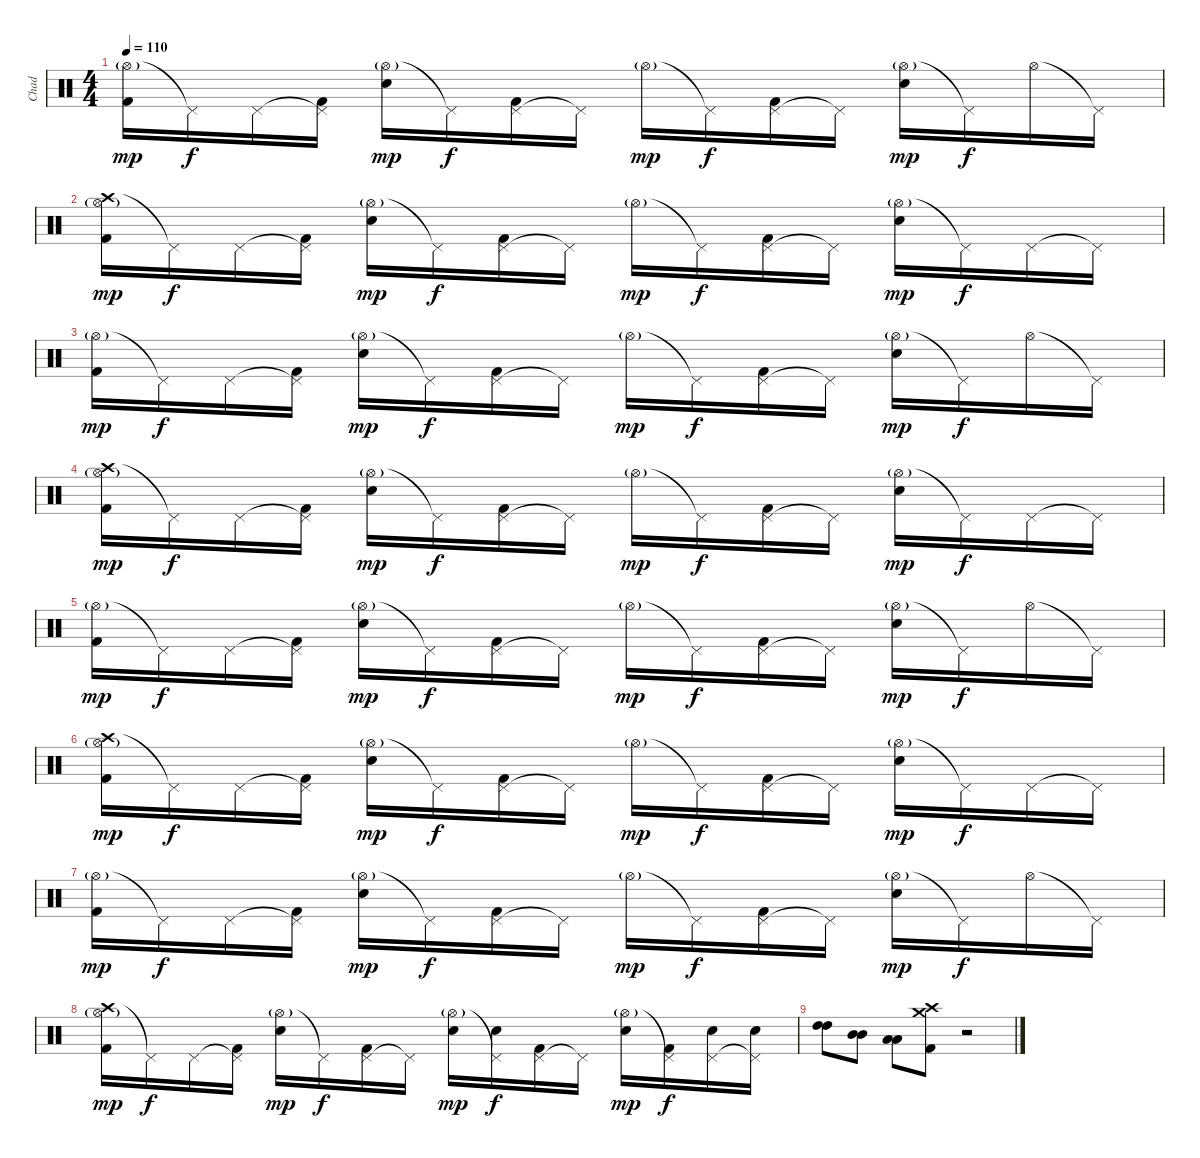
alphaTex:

\track ("Chad" "Chad") {instrument percussion}
\staff {score}
\articulation defaults
\ts (4 4)
\tempo 110
\clef neutral
\ks c
("Hi-Hat (open)"{g} "Kick (hit) 2").16{dy mp} "Pedal Hi-Hat (hit)"{t}.16{dy f} "Pedal Hi-Hat (hit)".16 ("Pedal Hi-Hat (hit)"{t} "Kick (hit) 2").16 ("Hi-Hat (open)"{g} "Electric Snare (hit)").16{dy mp} "Pedal Hi-Hat (hit)"{t}.16{dy f} ("Pedal Hi-Hat (hit)" "Kick (hit) 2").16 "Pedal Hi-Hat (hit)"{t}.16 "Hi-Hat (open)"{g}.16{dy mp} "Pedal Hi-Hat (hit)"{t}.16{dy f} ("Pedal Hi-Hat (hit)" "Kick (hit) 2").16 "Pedal Hi-Hat (hit)"{t}.16 ("Hi-Hat (open)"{g} "Electric Snare (hit)").16{dy mp} "Pedal Hi-Hat (hit)"{t}.16{dy f} "Hi-Hat (open)".16 "Pedal Hi-Hat (hit)"{t}.16 |
("Crash high (hit)" "Hi-Hat (open)"{g} "Kick (hit) 2").16{dy mp} "Pedal Hi-Hat (hit)"{t}.16{dy f} "Pedal Hi-Hat (hit)".16 ("Pedal Hi-Hat (hit)"{t} "Kick (hit) 2").16 ("Hi-Hat (open)"{g} "Electric Snare (hit)").16{dy mp} "Pedal Hi-Hat (hit)"{t}.16{dy f} ("Pedal Hi-Hat (hit)" "Kick (hit) 2").16 "Pedal Hi-Hat (hit)"{t}.16 "Hi-Hat (open)"{g}.16{dy mp} "Pedal Hi-Hat (hit)"{t}.16{dy f} ("Pedal Hi-Hat (hit)" "Kick (hit) 2").16 "Pedal Hi-Hat (hit)"{t}.16 ("Hi-Hat (open)"{g} "Electric Snare (hit)").16{dy mp} "Pedal Hi-Hat (hit)"{t}.16{dy f} "Pedal Hi-Hat (hit)".16 "Pedal Hi-Hat (hit)"{t}.16 |
("Hi-Hat (open)"{g} "Kick (hit) 2").16{dy mp} "Pedal Hi-Hat (hit)"{t}.16{dy f} "Pedal Hi-Hat (hit)".16 ("Pedal Hi-Hat (hit)"{t} "Kick (hit) 2").16 ("Hi-Hat (open)"{g} "Electric Snare (hit)").16{dy mp} "Pedal Hi-Hat (hit)"{t}.16{dy f} ("Pedal Hi-Hat (hit)" "Kick (hit) 2").16 "Pedal Hi-Hat (hit)"{t}.16 "Hi-Hat (open)"{g}.16{dy mp} "Pedal Hi-Hat (hit)"{t}.16{dy f} ("Pedal Hi-Hat (hit)" "Kick (hit) 2").16 "Pedal Hi-Hat (hit)"{t}.16 ("Hi-Hat (open)"{g} "Electric Snare (hit)").16{dy mp} "Pedal Hi-Hat (hit)"{t}.16{dy f} "Hi-Hat (open)".16 "Pedal Hi-Hat (hit)"{t}.16 |
("Crash high (hit)" "Hi-Hat (open)"{g} "Kick (hit) 2").16{dy mp} "Pedal Hi-Hat (hit)"{t}.16{dy f} "Pedal Hi-Hat (hit)".16 ("Pedal Hi-Hat (hit)"{t} "Kick (hit) 2").16 ("Hi-Hat (open)"{g} "Electric Snare (hit)").16{dy mp} "Pedal Hi-Hat (hit)"{t}.16{dy f} ("Pedal Hi-Hat (hit)" "Kick (hit) 2").16 "Pedal Hi-Hat (hit)"{t}.16 "Hi-Hat (open)"{g}.16{dy mp} "Pedal Hi-Hat (hit)"{t}.16{dy f} ("Pedal Hi-Hat (hit)" "Kick (hit) 2").16 "Pedal Hi-Hat (hit)"{t}.16 ("Hi-Hat (open)"{g} "Electric Snare (hit)").16{dy mp} "Pedal Hi-Hat (hit)"{t}.16{dy f} "Pedal Hi-Hat (hit)".16 "Pedal Hi-Hat (hit)"{t}.16 |
("Hi-Hat (open)"{g} "Kick (hit) 2").16{dy mp} "Pedal Hi-Hat (hit)"{t}.16{dy f} "Pedal Hi-Hat (hit)".16 ("Pedal Hi-Hat (hit)"{t} "Kick (hit) 2").16 ("Hi-Hat (open)"{g} "Electric Snare (hit)").16{dy mp} "Pedal Hi-Hat (hit)"{t}.16{dy f} ("Pedal Hi-Hat (hit)" "Kick (hit) 2").16 "Pedal Hi-Hat (hit)"{t}.16 "Hi-Hat (open)"{g}.16{dy mp} "Pedal Hi-Hat (hit)"{t}.16{dy f} ("Pedal Hi-Hat (hit)" "Kick (hit) 2").16 "Pedal Hi-Hat (hit)"{t}.16 ("Hi-Hat (open)"{g} "Electric Snare (hit)").16{dy mp} "Pedal Hi-Hat (hit)"{t}.16{dy f} "Hi-Hat (open)".16 "Pedal Hi-Hat (hit)"{t}.16 |
("Crash high (hit)" "Hi-Hat (open)"{g} "Kick (hit) 2").16{dy mp} "Pedal Hi-Hat (hit)"{t}.16{dy f} "Pedal Hi-Hat (hit)".16 ("Pedal Hi-Hat (hit)"{t} "Kick (hit) 2").16 ("Hi-Hat (open)"{g} "Electric Snare (hit)").16{dy mp} "Pedal Hi-Hat (hit)"{t}.16{dy f} ("Pedal Hi-Hat (hit)" "Kick (hit) 2").16 "Pedal Hi-Hat (hit)"{t}.16 "Hi-Hat (open)"{g}.16{dy mp} "Pedal Hi-Hat (hit)"{t}.16{dy f} ("Pedal Hi-Hat (hit)" "Kick (hit) 2").16 "Pedal Hi-Hat (hit)"{t}.16 ("Hi-Hat (open)"{g} "Electric Snare (hit)").16{dy mp} "Pedal Hi-Hat (hit)"{t}.16{dy f} "Pedal Hi-Hat (hit)".16 "Pedal Hi-Hat (hit)"{t}.16 |
("Hi-Hat (open)"{g} "Kick (hit) 2").16{dy mp} "Pedal Hi-Hat (hit)"{t}.16{dy f} "Pedal Hi-Hat (hit)".16 ("Pedal Hi-Hat (hit)"{t} "Kick (hit) 2").16 ("Hi-Hat (open)"{g} "Electric Snare (hit)").16{dy mp} "Pedal Hi-Hat (hit)"{t}.16{dy f} ("Pedal Hi-Hat (hit)" "Kick (hit) 2").16 "Pedal Hi-Hat (hit)"{t}.16 "Hi-Hat (open)"{g}.16{dy mp} "Pedal Hi-Hat (hit)"{t}.16{dy f} ("Pedal Hi-Hat (hit)" "Kick (hit) 2").16 "Pedal Hi-Hat (hit)"{t}.16 ("Hi-Hat (open)"{g} "Electric Snare (hit)").16{dy mp} "Pedal Hi-Hat (hit)"{t}.16{dy f} "Hi-Hat (open)".16 "Pedal Hi-Hat (hit)"{t}.16 |
("Crash high (hit)" "Hi-Hat (open)"{g} "Kick (hit) 2").16{dy mp} "Pedal Hi-Hat (hit)"{t}.16{dy f} "Pedal Hi-Hat (hit)".16 ("Pedal Hi-Hat (hit)"{t} "Kick (hit) 2").16 ("Hi-Hat (open)"{g} "Electric Snare (hit)").16{dy mp} "Pedal Hi-Hat (hit)"{t}.16{dy f} ("Pedal Hi-Hat (hit)" "Kick (hit) 2").16 "Pedal Hi-Hat (hit)"{t}.16 ("Hi-Hat (open)"{g} "Electric Snare (hit)").16{dy mp} ("Pedal Hi-Hat (hit)"{t} "Electric Snare (hit)").16{dy f} ("Pedal Hi-Hat (hit)" "Kick (hit) 2").16 "Pedal Hi-Hat (hit)"{t}.16 ("Hi-Hat (open)"{g} "Electric Snare (hit)").16{dy mp} ("Pedal Hi-Hat (hit)"{t} "Kick (hit) 2").16{dy f} ("Pedal Hi-Hat (hit)" "Electric Snare (hit)").16 ("Pedal Hi-Hat (hit)"{t} "Electric Snare (hit)").16 |
("High Tom (hit)" "High Tom (hit)").8 ("Mid Tom (hit)" "Mid Tom (hit)").8 ("Low Tom (hit)" "Low Tom (hit)").8 ("Crash high (hit)" "Crash medium (hit)" "Kick (hit) 2").8 r.2
